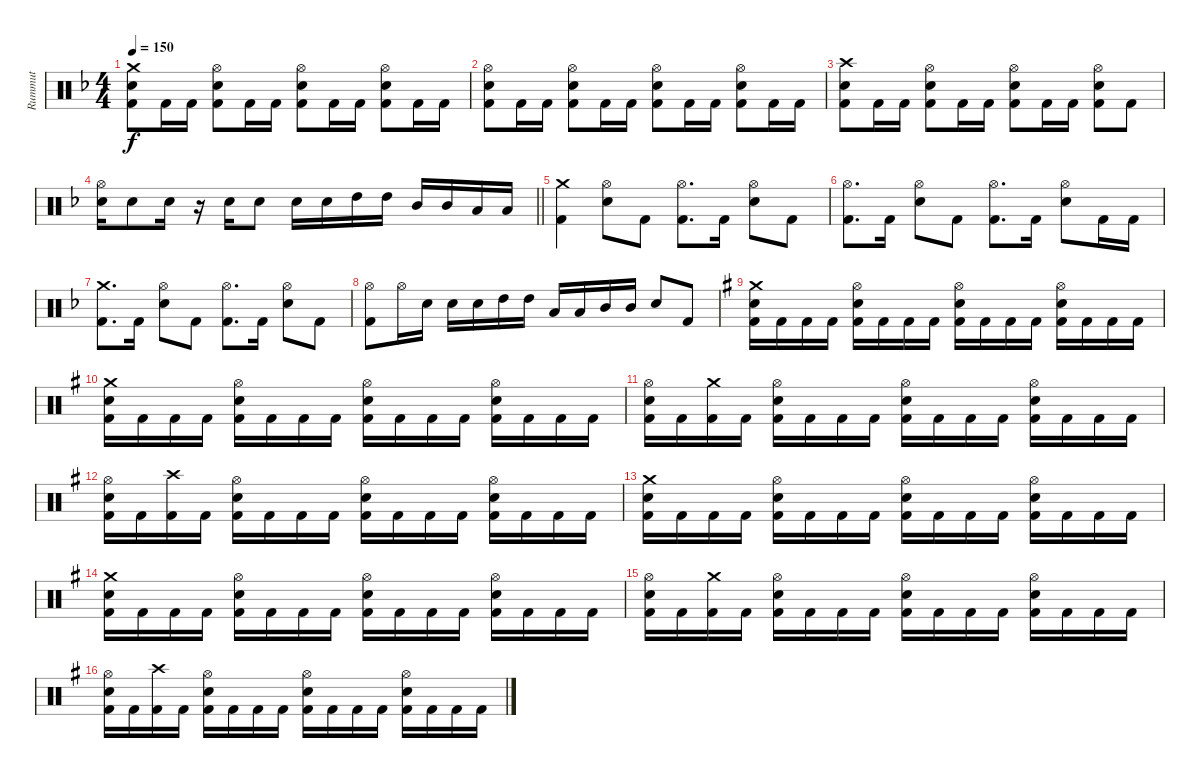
\track ("Rummut" "Rummut") {instrument percussion}
\staff {score}
\articulation defaults
\ts (4 4)
\tempo 150
\clef neutral
\ks dminor
("Crash medium (hit)" "Snare (hit) 2" "Kick (hit) 2").8{dy f} "Kick (hit) 2".16 "Kick (hit) 2".16 ("Hi-Hat (open)" "Snare (hit) 2" "Kick (hit) 2").8 "Kick (hit) 2".16 "Kick (hit) 2".16 ("Hi-Hat (open)" "Snare (hit) 2" "Kick (hit) 2").8 "Kick (hit) 2".16 "Kick (hit) 2".16 ("Hi-Hat (open)" "Snare (hit) 2" "Kick (hit) 2").8 "Kick (hit) 2".16 "Kick (hit) 2".16 |
("Hi-Hat (open)" "Snare (hit) 2" "Kick (hit) 2").8 "Kick (hit) 2".16 "Kick (hit) 2".16 ("Hi-Hat (open)" "Snare (hit) 2" "Kick (hit) 2").8 "Kick (hit) 2".16 "Kick (hit) 2".16 ("Hi-Hat (open)" "Snare (hit) 2" "Kick (hit) 2").8 "Kick (hit) 2".16 "Kick (hit) 2".16 ("Hi-Hat (open)" "Snare (hit) 2" "Kick (hit) 2").8 "Kick (hit) 2".16 "Kick (hit) 2".16 |
("Crash high (hit)" "Snare (hit) 2" "Kick (hit) 2").8 "Kick (hit) 2".16 "Kick (hit) 2".16 ("Hi-Hat (open)" "Snare (hit) 2" "Kick (hit) 2").8 "Kick (hit) 2".16 "Kick (hit) 2".16 ("Hi-Hat (open)" "Snare (hit) 2" "Kick (hit) 2").8 "Kick (hit) 2".16 "Kick (hit) 2".16 ("Hi-Hat (open)" "Snare (hit) 2" "Kick (hit) 2").8 "Kick (hit) 2".8 |
\barLineRight lightlight
("Hi-Hat (open)" "Snare (hit) 2").16 "Snare (hit) 2".8 "Snare (hit) 2".16 r.16 "Snare (hit) 2".16 "Snare (hit) 2".8 "Snare (hit) 2".16 "Snare (hit) 2".16 "High Tom (hit)".16 "High Tom (hit)".16 "Mid Tom (hit)".16 "Mid Tom (hit)".16 "Low Tom (hit)".16 "Low Tom (hit)".16 |
("Crash medium (hit)" "Kick (hit) 2").4 ("Hi-Hat (open)" "Snare (hit) 2").8 "Kick (hit) 2".8 ("Hi-Hat (open)" "Kick (hit) 2").8{d} "Kick (hit) 2".16 ("Hi-Hat (open)" "Snare (hit) 2").8 "Kick (hit) 2".8 |
("Hi-Hat (open)" "Kick (hit) 2").8{d} "Kick (hit) 2".16 ("Hi-Hat (open)" "Snare (hit) 2").8 "Kick (hit) 2".8 ("Hi-Hat (open)" "Kick (hit) 2").8{d} "Kick (hit) 2".16 ("Hi-Hat (open)" "Snare (hit) 2").8 "Kick (hit) 2".16 "Kick (hit) 2".16 |
("Crash medium (hit)" "Kick (hit) 2").8{d} "Kick (hit) 2".16 ("Hi-Hat (open)" "Snare (hit) 2").8 "Kick (hit) 2".8 ("Hi-Hat (open)" "Kick (hit) 2").8{d} "Kick (hit) 2".16 ("Hi-Hat (open)" "Snare (hit) 2").8 "Kick (hit) 2".8 |
("Hi-Hat (open)" "Kick (hit) 2").8 "Hi-Hat (open)".16 "Snare (hit) 2".16 "Snare (hit) 2".16 "Snare (hit) 2".16 "High Tom (hit)".16 "High Tom (hit)".16 "Low Tom (hit)".16 "Low Tom (hit)".16 "Mid Tom (hit)".16 "Mid Tom (hit)".16 "Snare (hit) 2".8 "Kick (hit) 2".8 |
\ks g
("Crash medium (hit)" "Snare (hit) 2" "Kick (hit) 2").16 "Kick (hit) 2".16 "Kick (hit) 2".16 "Kick (hit) 2".16 ("Hi-Hat (open)" "Snare (hit) 2" "Kick (hit) 2").16 "Kick (hit) 2".16 "Kick (hit) 2".16 "Kick (hit) 2".16 ("Hi-Hat (open)" "Snare (hit) 2" "Kick (hit) 2").16 "Kick (hit) 2".16 "Kick (hit) 2".16 "Kick (hit) 2".16 ("Hi-Hat (open)" "Snare (hit) 2" "Kick (hit) 2").16 "Kick (hit) 2".16 "Kick (hit) 2".16 "Kick (hit) 2".16 |
("Crash medium (hit)" "Snare (hit) 2" "Kick (hit) 2").16 "Kick (hit) 2".16 "Kick (hit) 2".16 "Kick (hit) 2".16 ("Hi-Hat (open)" "Snare (hit) 2" "Kick (hit) 2").16 "Kick (hit) 2".16 "Kick (hit) 2".16 "Kick (hit) 2".16 ("Hi-Hat (open)" "Snare (hit) 2" "Kick (hit) 2").16 "Kick (hit) 2".16 "Kick (hit) 2".16 "Kick (hit) 2".16 ("Hi-Hat (open)" "Snare (hit) 2" "Kick (hit) 2").16 "Kick (hit) 2".16 "Kick (hit) 2".16 "Kick (hit) 2".16 |
("Hi-Hat (open)" "Snare (hit) 2" "Kick (hit) 2").16 "Kick (hit) 2".16 ("Crash medium (hit)" "Kick (hit) 2").16 "Kick (hit) 2".16 ("Hi-Hat (open)" "Snare (hit) 2" "Kick (hit) 2").16 "Kick (hit) 2".16 "Kick (hit) 2".16 "Kick (hit) 2".16 ("Hi-Hat (open)" "Snare (hit) 2" "Kick (hit) 2").16 "Kick (hit) 2".16 "Kick (hit) 2".16 "Kick (hit) 2".16 ("Hi-Hat (open)" "Snare (hit) 2" "Kick (hit) 2").16 "Kick (hit) 2".16 "Kick (hit) 2".16 "Kick (hit) 2".16 |
("Hi-Hat (open)" "Snare (hit) 2" "Kick (hit) 2").16 "Kick (hit) 2".16 ("Crash high (hit)" "Kick (hit) 2").16 "Kick (hit) 2".16 ("Hi-Hat (open)" "Snare (hit) 2" "Kick (hit) 2").16 "Kick (hit) 2".16 "Kick (hit) 2".16 "Kick (hit) 2".16 ("Hi-Hat (open)" "Snare (hit) 2" "Kick (hit) 2").16 "Kick (hit) 2".16 "Kick (hit) 2".16 "Kick (hit) 2".16 ("Hi-Hat (open)" "Snare (hit) 2" "Kick (hit) 2").16 "Kick (hit) 2".16 "Kick (hit) 2".16 "Kick (hit) 2".16 |
("Crash medium (hit)" "Snare (hit) 2" "Kick (hit) 2").16 "Kick (hit) 2".16 "Kick (hit) 2".16 "Kick (hit) 2".16 ("Hi-Hat (open)" "Snare (hit) 2" "Kick (hit) 2").16 "Kick (hit) 2".16 "Kick (hit) 2".16 "Kick (hit) 2".16 ("Hi-Hat (open)" "Snare (hit) 2" "Kick (hit) 2").16 "Kick (hit) 2".16 "Kick (hit) 2".16 "Kick (hit) 2".16 ("Hi-Hat (open)" "Snare (hit) 2" "Kick (hit) 2").16 "Kick (hit) 2".16 "Kick (hit) 2".16 "Kick (hit) 2".16 |
("Crash medium (hit)" "Snare (hit) 2" "Kick (hit) 2").16 "Kick (hit) 2".16 "Kick (hit) 2".16 "Kick (hit) 2".16 ("Hi-Hat (open)" "Snare (hit) 2" "Kick (hit) 2").16 "Kick (hit) 2".16 "Kick (hit) 2".16 "Kick (hit) 2".16 ("Hi-Hat (open)" "Snare (hit) 2" "Kick (hit) 2").16 "Kick (hit) 2".16 "Kick (hit) 2".16 "Kick (hit) 2".16 ("Hi-Hat (open)" "Snare (hit) 2" "Kick (hit) 2").16 "Kick (hit) 2".16 "Kick (hit) 2".16 "Kick (hit) 2".16 |
("Hi-Hat (open)" "Snare (hit) 2" "Kick (hit) 2").16 "Kick (hit) 2".16 ("Crash medium (hit)" "Kick (hit) 2").16 "Kick (hit) 2".16 ("Hi-Hat (open)" "Snare (hit) 2" "Kick (hit) 2").16 "Kick (hit) 2".16 "Kick (hit) 2".16 "Kick (hit) 2".16 ("Hi-Hat (open)" "Snare (hit) 2" "Kick (hit) 2").16 "Kick (hit) 2".16 "Kick (hit) 2".16 "Kick (hit) 2".16 ("Hi-Hat (open)" "Snare (hit) 2" "Kick (hit) 2").16 "Kick (hit) 2".16 "Kick (hit) 2".16 "Kick (hit) 2".16 |
("Hi-Hat (open)" "Snare (hit) 2" "Kick (hit) 2").16 "Kick (hit) 2".16 ("Crash high (hit)" "Kick (hit) 2").16 "Kick (hit) 2".16 ("Hi-Hat (open)" "Snare (hit) 2" "Kick (hit) 2").16 "Kick (hit) 2".16 "Kick (hit) 2".16 "Kick (hit) 2".16 ("Hi-Hat (open)" "Snare (hit) 2" "Kick (hit) 2").16 "Kick (hit) 2".16 "Kick (hit) 2".16 "Kick (hit) 2".16 ("Hi-Hat (open)" "Snare (hit) 2" "Kick (hit) 2").16 "Kick (hit) 2".16 "Kick (hit) 2".16 "Kick (hit) 2".16
